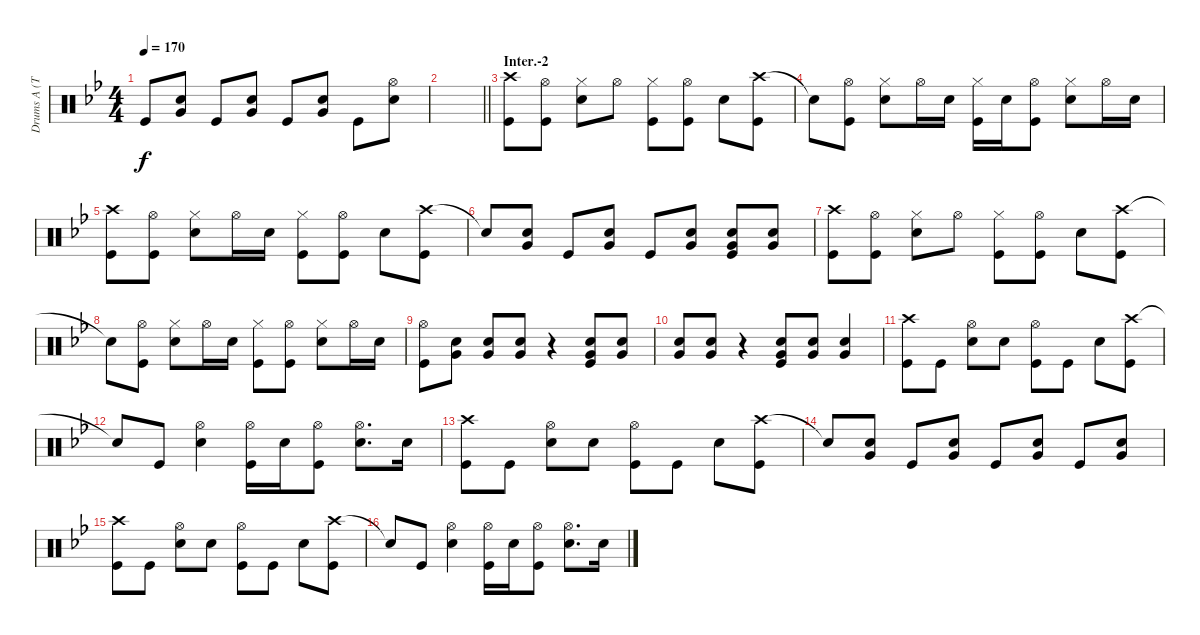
\track ("Drums A (Tainaka Ritsu)" "Drums A (T") {instrument percussion}
\staff {score}
\articulation defaults
\ts (4 4)
\tempo 170
\clef neutral
\ks bb "Kick (hit)".8{dy f}
("Snare (hit) 2" "Very Low Tom (hit)").8 "Kick (hit)".8 ("Snare (hit) 2" "Very Low Tom (hit)").8 "Kick (hit)".8 ("Snare (hit) 2" "Very Low Tom (hit)").8 "Kick (hit)".8 ("Hi-Hat (open)" "Snare (hit) 2").8 |
\barLineRight lightlight
|
\section ("" "Inter.-2")
("Crash high (hit)" "Kick (hit)").8 ("Hi-Hat (open)" "Kick (hit)").8 ("Hi-Hat (closed)" "Snare (hit) 2").8 "Hi-Hat (open)".8 ("Hi-Hat (closed)" "Kick (hit)").8 ("Hi-Hat (open)" "Kick (hit)").8 "Snare (hit) 2".8 ("Crash high (hit)" "Kick (hit)").8 |
"Snare (hit)"{t}.8 ("Hi-Hat (open)" "Kick (hit)").8 ("Hi-Hat (closed)" "Snare (hit) 2").8 "Hi-Hat (open)".16 "Snare (hit) 2".16 ("Hi-Hat (closed)" "Kick (hit)").16 "Snare (hit) 2".16 ("Hi-Hat (open)" "Kick (hit)").8 ("Hi-Hat (closed)" "Snare (hit) 2").8 "Hi-Hat (open)".16 "Snare (hit) 2".16 |
("Crash high (hit)" "Kick (hit)").8 ("Hi-Hat (open)" "Kick (hit)").8 ("Hi-Hat (closed)" "Snare (hit) 2").8 "Hi-Hat (open)".16 "Snare (hit) 2".16 ("Hi-Hat (closed)" "Kick (hit)").8 ("Hi-Hat (open)" "Kick (hit)").8 "Snare (hit) 2".8 ("Crash high (hit)" "Kick (hit)").8 |
"Snare (hit)"{t}.8 ("Snare (hit) 2" "Very Low Tom (hit)").8 "Kick (hit)".8 ("Snare (hit) 2" "Very Low Tom (hit)").8 "Kick (hit)".8 ("Snare (hit) 2" "Very Low Tom (hit)").8 ("Snare (hit) 2" "Very Low Tom (hit)" "Kick (hit)").8 ("Snare (hit) 2" "Very Low Tom (hit)").8 |
("Crash high (hit)" "Kick (hit)").8 ("Hi-Hat (open)" "Kick (hit)").8 ("Hi-Hat (closed)" "Snare (hit) 2").8 "Hi-Hat (open)".8 ("Hi-Hat (closed)" "Kick (hit)").8 ("Hi-Hat (open)" "Kick (hit)").8 "Snare (hit) 2".8 ("Crash high (hit)" "Kick (hit)").8 |
"Snare (hit)"{t}.8 ("Hi-Hat (open)" "Kick (hit)").8 ("Hi-Hat (closed)" "Snare (hit) 2").8 "Hi-Hat (open)".16 "Snare (hit) 2".16 ("Hi-Hat (closed)" "Kick (hit)").8 ("Hi-Hat (open)" "Kick (hit)").8 ("Hi-Hat (closed)" "Snare (hit) 2").8 "Hi-Hat (open)".16 "Snare (hit) 2".16 |
("Hi-Hat (open)" "Kick (hit)").8 ("Snare (hit) 2" "Very Low Tom (hit)").8 ("Snare (hit) 2" "Very Low Tom (hit)").8 ("Snare (hit) 2" "Very Low Tom (hit)").8 r.4 ("Snare (hit) 2" "Very Low Tom (hit)" "Kick (hit)").8 ("Snare (hit) 2" "Very Low Tom (hit)").8 |
("Snare (hit) 2" "Very Low Tom (hit)").8 ("Snare (hit) 2" "Very Low Tom (hit)").8 r.4 ("Snare (hit) 2" "Very Low Tom (hit)" "Kick (hit)").8 ("Snare (hit) 2" "Very Low Tom (hit)").8 ("Snare (hit) 2" "Very Low Tom (hit)").4 |
("Crash high (hit)" "Kick (hit)").8 "Kick (hit)".8 ("Hi-Hat (open)" "Snare (hit) 2").8 "Snare (hit) 2".8 ("Hi-Hat (open)" "Kick (hit)").8 "Kick (hit)".8 "Snare (hit) 2".8 ("Crash high (hit)" "Kick (hit)").8 |
"Snare (hit)"{t}.8 "Kick (hit)".8 ("Hi-Hat (open)" "Snare (hit) 2").4 ("Hi-Hat (open)" "Kick (hit)").16 "Snare (hit) 2".16 ("Hi-Hat (open)" "Kick (hit)").8 ("Hi-Hat (open)" "Snare (hit) 2").8{d} "Snare (hit) 2".16 |
("Crash high (hit)" "Kick (hit)").8 "Kick (hit)".8 ("Hi-Hat (open)" "Snare (hit) 2").8 "Snare (hit) 2".8 ("Hi-Hat (open)" "Kick (hit)").8 "Kick (hit)".8 "Snare (hit) 2".8 ("Crash high (hit)" "Kick (hit)").8 |
"Snare (hit)"{t}.8 ("Snare (hit) 2" "Very Low Tom (hit)").8 "Kick (hit)".8 ("Snare (hit) 2" "Very Low Tom (hit)").8 "Kick (hit)".8 ("Snare (hit) 2" "Very Low Tom (hit)").8 "Kick (hit)".8 ("Snare (hit) 2" "Very Low Tom (hit)").8 |
("Crash high (hit)" "Kick (hit)").8 "Kick (hit)".8 ("Hi-Hat (open)" "Snare (hit) 2").8 "Snare (hit) 2".8 ("Hi-Hat (open)" "Kick (hit)").8 "Kick (hit)".8 "Snare (hit) 2".8 ("Crash high (hit)" "Kick (hit)").8 |
"Snare (hit)"{t}.8 "Kick (hit)".8 ("Hi-Hat (open)" "Snare (hit) 2").4 ("Hi-Hat (open)" "Kick (hit)").16 "Snare (hit) 2".16 ("Hi-Hat (open)" "Kick (hit)").8 ("Hi-Hat (open)" "Snare (hit) 2").8{d} "Snare (hit) 2".16
